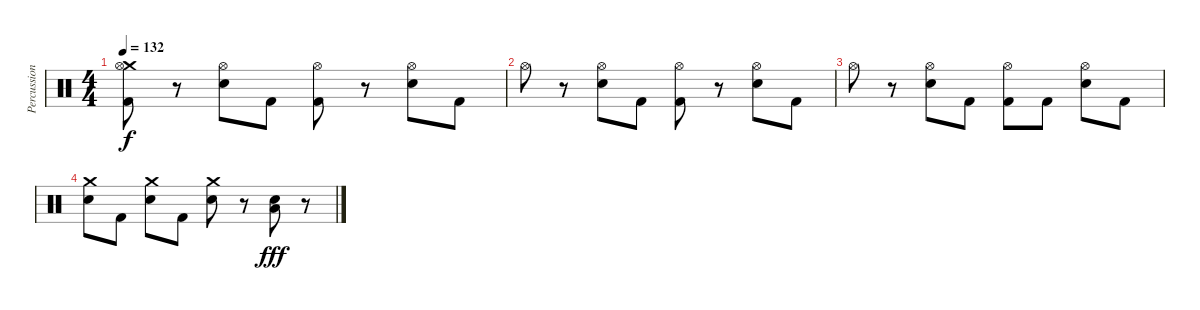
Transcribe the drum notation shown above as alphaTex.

\track ("Percussion" "Percussion") {instrument percussion}
\staff {score}
\articulation defaults
\ts (4 4)
\tempo 132
\clef neutral
\ks c
("Crash medium (hit)" "Hi-Hat (open)" "Kick (hit) 2").8{dy f} r.8 ("Hi-Hat (open)" "Snare (hit) 2").8 "Kick (hit) 2".8 ("Hi-Hat (open)" "Kick (hit) 2").8 r.8 ("Hi-Hat (open)" "Snare (hit) 2").8 "Kick (hit) 2".8 |
"Hi-Hat (open)".8 r.8 ("Hi-Hat (open)" "Snare (hit) 2").8 "Kick (hit) 2".8 ("Hi-Hat (open)" "Kick (hit) 2").8 r.8 ("Hi-Hat (open)" "Snare (hit) 2").8 "Kick (hit) 2".8 |
"Hi-Hat (open)".8 r.8 ("Hi-Hat (open)" "Snare (hit) 2").8 "Kick (hit) 2".8 ("Hi-Hat (open)" "Kick (hit) 2").8 "Kick (hit) 2".8 ("Hi-Hat (open)" "Snare (hit) 2").8 "Kick (hit) 2".8 |
("Crash medium (hit)" "Snare (hit) 2").8 "Kick (hit) 2".8 ("Crash medium (hit)" "Snare (hit) 2").8 "Kick (hit) 2".8 ("Crash medium (hit)" "Snare (hit) 2").8 r.8 ("Snare (hit) 2" "Low Floor Tom (hit)").8{dy fff} r.8
